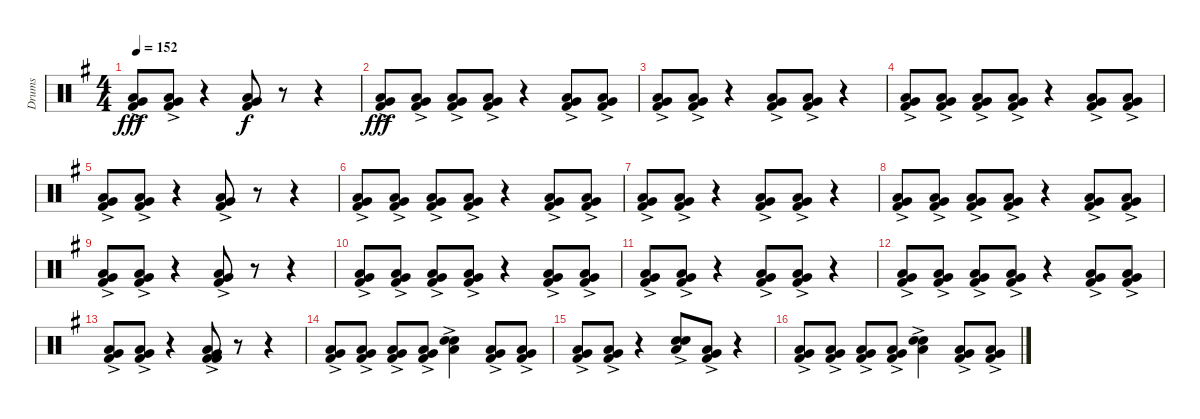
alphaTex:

\track ("Drums" "Drums") {instrument percussion}
\staff {score}
\articulation defaults
\ts (4 4)
\tempo 152
\clef neutral
\ks eminor
("Very Low Tom (hit)" "Low Floor Tom (hit)" "Kick (hit) 2"{ac}).8{dy fff} ("Very Low Tom (hit)" "Low Floor Tom (hit)" "Kick (hit) 2"{ac}).8 r.4 ("Very Low Tom (hit)" "Low Floor Tom (hit)" "Kick (hit) 2").8{dy f} r.8 r.4 |
("Very Low Tom (hit)" "Low Floor Tom (hit)" "Kick (hit) 2"{ac}).8{dy fff} ("Very Low Tom (hit)" "Low Floor Tom (hit)" "Kick (hit) 2"{ac}).8 ("Very Low Tom (hit)" "Low Floor Tom (hit)" "Kick (hit) 2"{ac}).8 ("Very Low Tom (hit)" "Low Floor Tom (hit)" "Kick (hit) 2"{ac}).8 r.4 ("Very Low Tom (hit)" "Low Floor Tom (hit)" "Kick (hit) 2"{ac}).8 ("Very Low Tom (hit)" "Low Floor Tom (hit)" "Kick (hit) 2"{ac}).8 |
("Very Low Tom (hit)" "Low Floor Tom (hit)" "Kick (hit) 2"{ac}).8 ("Very Low Tom (hit)" "Low Floor Tom (hit)" "Kick (hit) 2"{ac}).8 r.4 ("Very Low Tom (hit)" "Low Floor Tom (hit)" "Kick (hit) 2"{ac}).8 ("Very Low Tom (hit)" "Low Floor Tom (hit)" "Kick (hit) 2"{ac}).8 r.4 |
("Very Low Tom (hit)" "Low Floor Tom (hit)" "Kick (hit) 2"{ac}).8 ("Very Low Tom (hit)" "Low Floor Tom (hit)" "Kick (hit) 2"{ac}).8 ("Very Low Tom (hit)" "Low Floor Tom (hit)" "Kick (hit) 2"{ac}).8 ("Very Low Tom (hit)" "Low Floor Tom (hit)" "Kick (hit) 2"{ac}).8 r.4 ("Very Low Tom (hit)" "Low Floor Tom (hit)" "Kick (hit) 2"{ac}).8 ("Very Low Tom (hit)" "Low Floor Tom (hit)" "Kick (hit) 2"{ac}).8 |
("Very Low Tom (hit)" "Low Floor Tom (hit)" "Kick (hit) 2"{ac}).8 ("Very Low Tom (hit)" "Low Floor Tom (hit)" "Kick (hit) 2"{ac}).8 r.4 ("Very Low Tom (hit)" "Low Floor Tom (hit)" "Kick (hit) 2"{ac}).8 r.8 r.4 |
("Very Low Tom (hit)" "Low Floor Tom (hit)" "Kick (hit) 2"{ac}).8 ("Very Low Tom (hit)" "Low Floor Tom (hit)" "Kick (hit) 2"{ac}).8 ("Very Low Tom (hit)" "Low Floor Tom (hit)" "Kick (hit) 2"{ac}).8 ("Very Low Tom (hit)" "Low Floor Tom (hit)" "Kick (hit) 2"{ac}).8 r.4 ("Very Low Tom (hit)" "Low Floor Tom (hit)" "Kick (hit) 2"{ac}).8 ("Very Low Tom (hit)" "Low Floor Tom (hit)" "Kick (hit) 2"{ac}).8 |
("Very Low Tom (hit)" "Low Floor Tom (hit)" "Kick (hit) 2"{ac}).8 ("Very Low Tom (hit)" "Low Floor Tom (hit)" "Kick (hit) 2"{ac}).8 r.4 ("Very Low Tom (hit)" "Low Floor Tom (hit)" "Kick (hit) 2"{ac}).8 ("Very Low Tom (hit)" "Low Floor Tom (hit)" "Kick (hit) 2"{ac}).8 r.4 |
("Very Low Tom (hit)" "Low Floor Tom (hit)" "Kick (hit) 2"{ac}).8 ("Very Low Tom (hit)" "Low Floor Tom (hit)" "Kick (hit) 2"{ac}).8 ("Very Low Tom (hit)" "Low Floor Tom (hit)" "Kick (hit) 2"{ac}).8 ("Very Low Tom (hit)" "Low Floor Tom (hit)" "Kick (hit) 2"{ac}).8 r.4 ("Very Low Tom (hit)" "Low Floor Tom (hit)" "Kick (hit) 2"{ac}).8 ("Very Low Tom (hit)" "Low Floor Tom (hit)" "Kick (hit) 2"{ac}).8 |
("Very Low Tom (hit)" "Low Floor Tom (hit)" "Kick (hit) 2"{ac}).8 ("Very Low Tom (hit)" "Low Floor Tom (hit)" "Kick (hit) 2"{ac}).8 r.4 ("Very Low Tom (hit)" "Low Floor Tom (hit)"{ac} "Kick (hit) 2").8 r.8 r.4 |
("Very Low Tom (hit)" "Low Floor Tom (hit)" "Kick (hit) 2"{ac}).8 ("Very Low Tom (hit)" "Low Floor Tom (hit)" "Kick (hit) 2"{ac}).8 ("Very Low Tom (hit)" "Low Floor Tom (hit)" "Kick (hit) 2"{ac}).8 ("Very Low Tom (hit)" "Low Floor Tom (hit)" "Kick (hit) 2"{ac}).8 r.4 ("Very Low Tom (hit)" "Low Floor Tom (hit)" "Kick (hit) 2"{ac}).8 ("Very Low Tom (hit)" "Low Floor Tom (hit)" "Kick (hit) 2"{ac}).8 |
("Very Low Tom (hit)" "Low Floor Tom (hit)" "Kick (hit) 2"{ac}).8 ("Very Low Tom (hit)" "Low Floor Tom (hit)" "Kick (hit) 2"{ac}).8 r.4 ("Very Low Tom (hit)" "Low Floor Tom (hit)" "Kick (hit) 2"{ac}).8 ("Very Low Tom (hit)" "Low Floor Tom (hit)" "Kick (hit) 2"{ac}).8 r.4 |
("Very Low Tom (hit)" "Low Floor Tom (hit)" "Kick (hit) 2"{ac}).8 ("Very Low Tom (hit)" "Low Floor Tom (hit)" "Kick (hit) 2"{ac}).8 ("Very Low Tom (hit)" "Low Floor Tom (hit)" "Kick (hit) 2"{ac}).8 ("Very Low Tom (hit)" "Low Floor Tom (hit)" "Kick (hit) 2"{ac}).8 r.4 ("Very Low Tom (hit)" "Low Floor Tom (hit)" "Kick (hit) 2"{ac}).8 ("Very Low Tom (hit)" "Low Floor Tom (hit)" "Kick (hit) 2"{ac}).8 |
("Very Low Tom (hit)" "Low Floor Tom (hit)" "Kick (hit) 2"{ac}).8 ("Very Low Tom (hit)" "Low Floor Tom (hit)" "Kick (hit) 2"{ac}).8 r.4 ("Kick (hit) 2" "Very Low Tom (hit)"{ac} "Low Floor Tom (hit)"{ac} "Kick (hit) 2"{ac}).8 r.8 r.4 |
("Very Low Tom (hit)" "Low Floor Tom (hit)" "Kick (hit) 2"{ac}).8 ("Very Low Tom (hit)" "Low Floor Tom (hit)" "Kick (hit) 2"{ac}).8 ("Very Low Tom (hit)" "Low Floor Tom (hit)" "Kick (hit) 2"{ac}).8 ("Very Low Tom (hit)" "Low Floor Tom (hit)" "Kick (hit) 2"{ac}).8 ("Snare (hit) 2"{ac} "Snare (hit) 2" "Low Floor Tom (hit)").4 ("Very Low Tom (hit)" "Low Floor Tom (hit)" "Kick (hit) 2"{ac}).8 ("Very Low Tom (hit)" "Low Floor Tom (hit)" "Kick (hit) 2"{ac}).8 |
("Very Low Tom (hit)" "Low Floor Tom (hit)" "Kick (hit) 2"{ac}).8 ("Very Low Tom (hit)" "Low Floor Tom (hit)" "Kick (hit) 2"{ac}).8 r.4 ("Snare (hit) 2"{ac} "Snare (hit) 2" "Low Floor Tom (hit)").8 ("Very Low Tom (hit)" "Low Floor Tom (hit)" "Kick (hit) 2"{ac}).8 r.4 |
("Very Low Tom (hit)" "Low Floor Tom (hit)" "Kick (hit) 2"{ac}).8 ("Very Low Tom (hit)" "Low Floor Tom (hit)" "Kick (hit) 2"{ac}).8 ("Very Low Tom (hit)" "Low Floor Tom (hit)" "Kick (hit) 2"{ac}).8 ("Very Low Tom (hit)" "Low Floor Tom (hit)" "Kick (hit) 2"{ac}).8 ("Snare (hit) 2"{ac} "Snare (hit) 2" "Low Floor Tom (hit)").4 ("Very Low Tom (hit)" "Low Floor Tom (hit)" "Kick (hit) 2"{ac}).8 ("Very Low Tom (hit)" "Low Floor Tom (hit)" "Kick (hit) 2"{ac}).8
